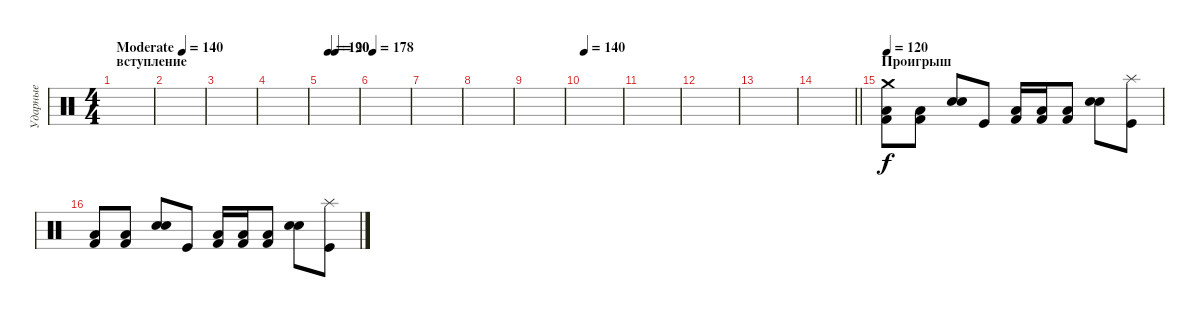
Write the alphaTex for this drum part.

\track ("Ударные" "Ударные") {instrument percussion}
\staff {score}
\articulation defaults
\ts (4 4)
\section ("" "вступление")
\tempo (140 "Moderate")
\clef neutral
\ks c
|
|
|
|
\tempo (120 0.1875)
\tempo (90 0.375)
|
\tempo 178
|
|
|
|
\tempo 140
|
|
|
|
\barLineRight lightlight
|
\section ("" "Проигрыш")
\tempo 120
("Crash medium (hit)" "Low Floor Tom (hit)" "Kick (hit) 2").8 ("Low Floor Tom (hit)" "Kick (hit) 2").8 ("Electric Snare (hit)" "Snare (hit) 2").8 "Kick (hit)".8 ("Low Floor Tom (hit)" "Kick (hit) 2").16 ("Low Floor Tom (hit)" "Kick (hit) 2").16 ("Low Floor Tom (hit)" "Kick (hit) 2").8 ("Electric Snare (hit)" "Snare (hit) 2").8 ("Splash (hit)" "Kick (hit)").8 |
("Low Floor Tom (hit)" "Kick (hit) 2").8 ("Low Floor Tom (hit)" "Kick (hit) 2").8 ("Electric Snare (hit)" "Snare (hit) 2").8 "Kick (hit)".8 ("Low Floor Tom (hit)" "Kick (hit) 2").16 ("Low Floor Tom (hit)" "Kick (hit) 2").16 ("Low Floor Tom (hit)" "Kick (hit) 2").8 ("Electric Snare (hit)" "Snare (hit) 2").8 ("Splash (hit)" "Kick (hit)").8
